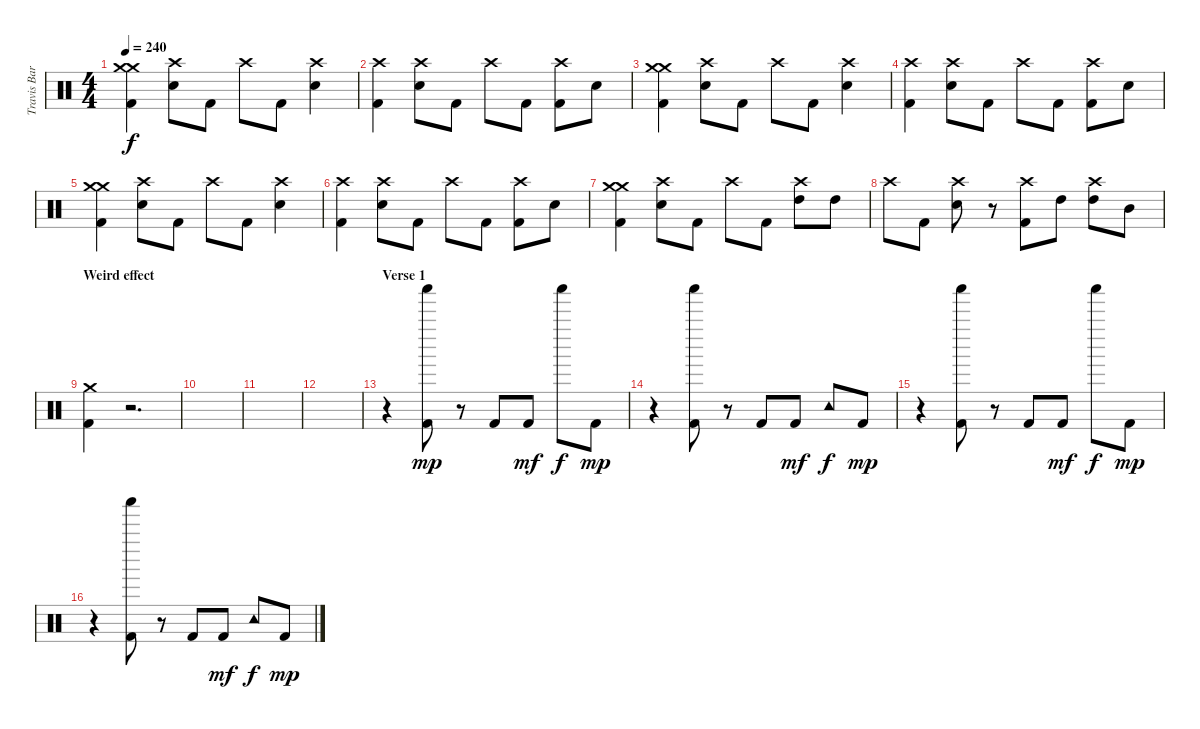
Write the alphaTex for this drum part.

\track ("Travis Barker - Drums" "Travis Bar") {instrument percussion}
\staff {score}
\articulation defaults
\ts (4 4)
\tempo 240
\clef neutral
\ks c
("Crash medium (hit)" "Crash medium (hit)" "Kick (hit) 2").4{dy f} ("Crash high (hit)" "Electric Snare (hit)").8 "Kick (hit) 2".8 "Crash high (hit)".8 "Kick (hit) 2".8 ("Crash high (hit)" "Electric Snare (hit)").4 |
("Crash high (hit)" "Kick (hit) 2").4 ("Crash high (hit)" "Electric Snare (hit)").8 "Kick (hit) 2".8 "Crash high (hit)".8 "Kick (hit) 2".8 ("Crash high (hit)" "Kick (hit) 2").8 "Electric Snare (hit)".8 |
("Crash medium (hit)" "Crash medium (hit)" "Kick (hit) 2").4 ("Crash high (hit)" "Electric Snare (hit)").8 "Kick (hit) 2".8 "Crash high (hit)".8 "Kick (hit) 2".8 ("Crash high (hit)" "Electric Snare (hit)").4 |
("Crash high (hit)" "Kick (hit) 2").4 ("Crash high (hit)" "Electric Snare (hit)").8 "Kick (hit) 2".8 "Crash high (hit)".8 "Kick (hit) 2".8 ("Crash high (hit)" "Kick (hit) 2").8 "Electric Snare (hit)".8 |
("Crash medium (hit)" "Crash medium (hit)" "Kick (hit) 2").4 ("Crash high (hit)" "Electric Snare (hit)").8 "Kick (hit) 2".8 "Crash high (hit)".8 "Kick (hit) 2".8 ("Crash high (hit)" "Electric Snare (hit)").4 |
("Crash high (hit)" "Kick (hit) 2").4 ("Crash high (hit)" "Electric Snare (hit)").8 "Kick (hit) 2".8 "Crash high (hit)".8 "Kick (hit) 2".8 ("Crash high (hit)" "Kick (hit) 2").8 "Electric Snare (hit)".8 |
("Crash medium (hit)" "Crash medium (hit)" "Kick (hit) 2").4 ("Crash high (hit)" "Electric Snare (hit)").8 "Kick (hit) 2".8 "Crash high (hit)".8 "Kick (hit) 2".8 ("Crash high (hit)" "High Tom (hit)").8 "High Tom (hit)".8 |
"Crash high (hit)".8 "Kick (hit) 2".8 ("Crash high (hit)" "Electric Snare (hit)").8 r.8 ("Crash high (hit)" "Kick (hit) 2").8 "High Tom (hit)".8 ("Crash high (hit)" "High Tom (hit)").8 "Mid Tom (hit)".8 |
\section ("" "Weird effect")
("Crash medium (hit)" "Kick (hit) 2").4 r.2{d} |
|
|
|
\section ("" "Verse 1")
r.4 ("Shaker (hit)" "Kick (hit) 2").8{dy mp} r.8 "Kick (hit) 2".8 "Kick (hit) 2".8{dy mf} "Shaker (hit)".8{dy f} "Kick (hit) 2".8{dy mp} |
r.4 ("Shaker (hit)" "Kick (hit) 2").8 r.8 "Kick (hit) 2".8 "Kick (hit) 2".8{dy mf} "Tambourine (hit)".8{dy f} "Kick (hit) 2".8{dy mp} |
r.4 ("Shaker (hit)" "Kick (hit) 2").8 r.8 "Kick (hit) 2".8 "Kick (hit) 2".8{dy mf} "Shaker (hit)".8{dy f} "Kick (hit) 2".8{dy mp} |
r.4 ("Shaker (hit)" "Kick (hit) 2").8 r.8 "Kick (hit) 2".8 "Kick (hit) 2".8{dy mf} "Tambourine (hit)".8{dy f} "Kick (hit) 2".8{dy mp}
